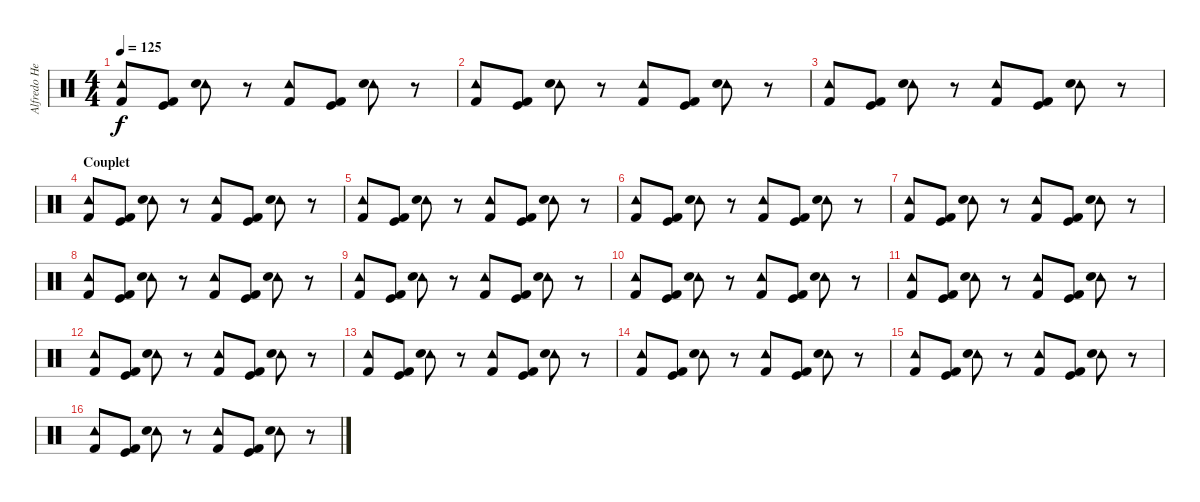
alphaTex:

\track ("Alfredo Hernandez (Drums)" "Alfredo He") {instrument percussion}
\staff {score}
\articulation defaults
\ts (4 4)
\tempo 125
\clef neutral
\ks c
("Tambourine (hit)" "Kick (hit) 2").8{dy f} ("Kick (hit)" "Kick (hit) 2").8 ("Tambourine (hit)" "Electric Snare (hit)").8 r.8 ("Tambourine (hit)" "Kick (hit) 2").8 ("Kick (hit)" "Kick (hit) 2").8 ("Tambourine (hit)" "Electric Snare (hit)").8 r.8 |
("Tambourine (hit)" "Kick (hit) 2").8 ("Kick (hit)" "Kick (hit) 2").8 ("Tambourine (hit)" "Electric Snare (hit)").8 r.8 ("Tambourine (hit)" "Kick (hit) 2").8 ("Kick (hit)" "Kick (hit) 2").8 ("Tambourine (hit)" "Electric Snare (hit)").8 r.8 |
("Tambourine (hit)" "Kick (hit) 2").8 ("Kick (hit)" "Kick (hit) 2").8 ("Tambourine (hit)" "Electric Snare (hit)").8 r.8 ("Tambourine (hit)" "Kick (hit) 2").8 ("Kick (hit)" "Kick (hit) 2").8 ("Tambourine (hit)" "Electric Snare (hit)").8 r.8 |
\section ("" "Couplet")
("Tambourine (hit)" "Kick (hit) 2").8 ("Kick (hit)" "Kick (hit) 2").8 ("Tambourine (hit)" "Electric Snare (hit)").8 r.8 ("Tambourine (hit)" "Kick (hit) 2").8 ("Kick (hit)" "Kick (hit) 2").8 ("Tambourine (hit)" "Electric Snare (hit)").8 r.8 |
("Tambourine (hit)" "Kick (hit) 2").8 ("Kick (hit)" "Kick (hit) 2").8 ("Tambourine (hit)" "Electric Snare (hit)").8 r.8 ("Tambourine (hit)" "Kick (hit) 2").8 ("Kick (hit)" "Kick (hit) 2").8 ("Tambourine (hit)" "Electric Snare (hit)").8 r.8 |
("Tambourine (hit)" "Kick (hit) 2").8 ("Kick (hit)" "Kick (hit) 2").8 ("Tambourine (hit)" "Electric Snare (hit)").8 r.8 ("Tambourine (hit)" "Kick (hit) 2").8 ("Kick (hit)" "Kick (hit) 2").8 ("Tambourine (hit)" "Electric Snare (hit)").8 r.8 |
("Tambourine (hit)" "Kick (hit) 2").8 ("Kick (hit)" "Kick (hit) 2").8 ("Tambourine (hit)" "Electric Snare (hit)").8 r.8 ("Tambourine (hit)" "Kick (hit) 2").8 ("Kick (hit)" "Kick (hit) 2").8 ("Tambourine (hit)" "Electric Snare (hit)").8 r.8 |
("Tambourine (hit)" "Kick (hit) 2").8 ("Kick (hit)" "Kick (hit) 2").8 ("Tambourine (hit)" "Electric Snare (hit)").8 r.8 ("Tambourine (hit)" "Kick (hit) 2").8 ("Kick (hit)" "Kick (hit) 2").8 ("Tambourine (hit)" "Electric Snare (hit)").8 r.8 |
("Tambourine (hit)" "Kick (hit) 2").8 ("Kick (hit)" "Kick (hit) 2").8 ("Tambourine (hit)" "Electric Snare (hit)").8 r.8 ("Tambourine (hit)" "Kick (hit) 2").8 ("Kick (hit)" "Kick (hit) 2").8 ("Tambourine (hit)" "Electric Snare (hit)").8 r.8 |
("Tambourine (hit)" "Kick (hit) 2").8 ("Kick (hit)" "Kick (hit) 2").8 ("Tambourine (hit)" "Electric Snare (hit)").8 r.8 ("Tambourine (hit)" "Kick (hit) 2").8 ("Kick (hit)" "Kick (hit) 2").8 ("Tambourine (hit)" "Electric Snare (hit)").8 r.8 |
("Tambourine (hit)" "Kick (hit) 2").8 ("Kick (hit)" "Kick (hit) 2").8 ("Tambourine (hit)" "Electric Snare (hit)").8 r.8 ("Tambourine (hit)" "Kick (hit) 2").8 ("Kick (hit)" "Kick (hit) 2").8 ("Tambourine (hit)" "Electric Snare (hit)").8 r.8 |
("Tambourine (hit)" "Kick (hit) 2").8 ("Kick (hit)" "Kick (hit) 2").8 ("Tambourine (hit)" "Electric Snare (hit)").8 r.8 ("Tambourine (hit)" "Kick (hit) 2").8 ("Kick (hit)" "Kick (hit) 2").8 ("Tambourine (hit)" "Electric Snare (hit)").8 r.8 |
("Tambourine (hit)" "Kick (hit) 2").8 ("Kick (hit)" "Kick (hit) 2").8 ("Tambourine (hit)" "Electric Snare (hit)").8 r.8 ("Tambourine (hit)" "Kick (hit) 2").8 ("Kick (hit)" "Kick (hit) 2").8 ("Tambourine (hit)" "Electric Snare (hit)").8 r.8 |
("Tambourine (hit)" "Kick (hit) 2").8 ("Kick (hit)" "Kick (hit) 2").8 ("Tambourine (hit)" "Electric Snare (hit)").8 r.8 ("Tambourine (hit)" "Kick (hit) 2").8 ("Kick (hit)" "Kick (hit) 2").8 ("Tambourine (hit)" "Electric Snare (hit)").8 r.8 |
("Tambourine (hit)" "Kick (hit) 2").8 ("Kick (hit)" "Kick (hit) 2").8 ("Tambourine (hit)" "Electric Snare (hit)").8 r.8 ("Tambourine (hit)" "Kick (hit) 2").8 ("Kick (hit)" "Kick (hit) 2").8 ("Tambourine (hit)" "Electric Snare (hit)").8 r.8 |
("Tambourine (hit)" "Kick (hit) 2").8 ("Kick (hit)" "Kick (hit) 2").8 ("Tambourine (hit)" "Electric Snare (hit)").8 r.8 ("Tambourine (hit)" "Kick (hit) 2").8 ("Kick (hit)" "Kick (hit) 2").8 ("Tambourine (hit)" "Electric Snare (hit)").8 r.8
